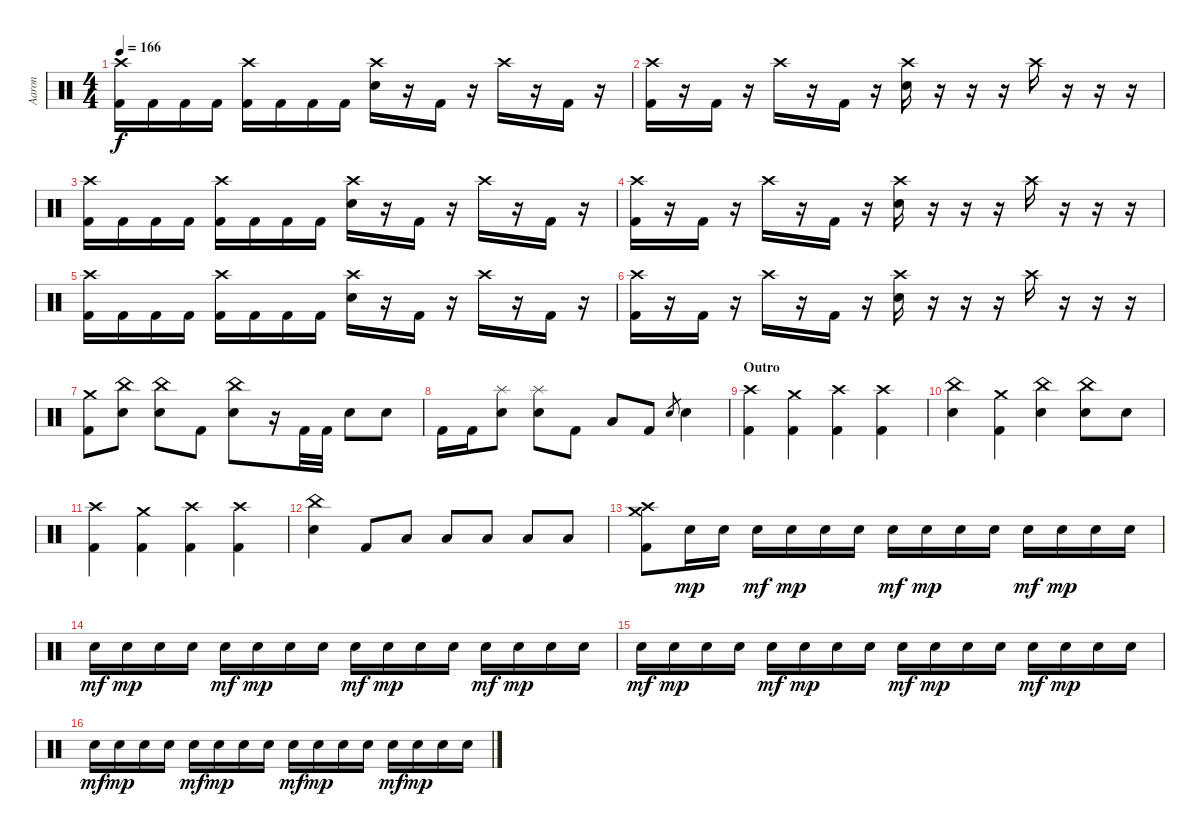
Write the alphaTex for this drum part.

\track ("Aaron" "Aaron") {instrument percussion}
\staff {score}
\articulation defaults
\ts (4 4)
\tempo 166
\clef neutral
\ks c
("Crash high (hit)" "Kick (hit) 2").16{dy f} "Kick (hit) 2".16 "Kick (hit) 2".16 "Kick (hit) 2".16 ("Crash high (hit)" "Kick (hit) 2").16 "Kick (hit) 2".16 "Kick (hit) 2".16 "Kick (hit) 2".16 ("Crash high (hit)" "Snare (hit) 2").16 r.16 "Kick (hit) 2".16 r.16 "Crash high (hit)".16 r.16 "Kick (hit) 2".16 r.16 |
("Crash high (hit)" "Kick (hit) 2").16 r.16 "Kick (hit) 2".16 r.16 "Crash high (hit)".16 r.16 "Kick (hit) 2".16 r.16 ("Crash high (hit)" "Snare (hit) 2").16 r.16 r.16 r.16 "Crash high (hit)".16 r.16 r.16 r.16 |
("Crash high (hit)" "Kick (hit) 2").16 "Kick (hit) 2".16 "Kick (hit) 2".16 "Kick (hit) 2".16 ("Crash high (hit)" "Kick (hit) 2").16 "Kick (hit) 2".16 "Kick (hit) 2".16 "Kick (hit) 2".16 ("Crash high (hit)" "Snare (hit) 2").16 r.16 "Kick (hit) 2".16 r.16 "Crash high (hit)".16 r.16 "Kick (hit) 2".16 r.16 |
("Crash high (hit)" "Kick (hit) 2").16 r.16 "Kick (hit) 2".16 r.16 "Crash high (hit)".16 r.16 "Kick (hit) 2".16 r.16 ("Crash high (hit)" "Snare (hit) 2").16 r.16 r.16 r.16 "Crash high (hit)".16 r.16 r.16 r.16 |
("Crash high (hit)" "Kick (hit) 2").16 "Kick (hit) 2".16 "Kick (hit) 2".16 "Kick (hit) 2".16 ("Crash high (hit)" "Kick (hit) 2").16 "Kick (hit) 2".16 "Kick (hit) 2".16 "Kick (hit) 2".16 ("Crash high (hit)" "Snare (hit) 2").16 r.16 "Kick (hit) 2".16 r.16 "Crash high (hit)".16 r.16 "Kick (hit) 2".16 r.16 |
("Crash high (hit)" "Kick (hit) 2").16 r.16 "Kick (hit) 2".16 r.16 "Crash high (hit)".16 r.16 "Kick (hit) 2".16 r.16 ("Crash high (hit)" "Snare (hit) 2").16 r.16 r.16 r.16 "Crash high (hit)".16 r.16 r.16 r.16 |
("Crash medium (hit)" "Kick (hit) 2").8 ("China (hit)" "Snare (hit) 2").8 ("China (hit)" "Snare (hit) 2").8 "Kick (hit) 2".8 ("China (hit)" "Snare (hit) 2").8 r.16 "Kick (hit) 2".32 "Kick (hit) 2".32 "Snare (hit) 2".8 "Snare (hit) 2".8 |
"Kick (hit) 2".16 "Kick (hit) 2".16 ("Splash (hit)" "Snare (hit) 2").8 ("Splash (hit)" "Snare (hit) 2").8 "Kick (hit) 2".8 "Low Tom (hit)".8 "Kick (hit) 2".8 "Snare (hit) 2".8{gr} "Snare (hit) 2".4 |
\section ("" "Outro")
("Crash high (hit)" "Kick (hit) 2").4 ("Crash medium (hit)" "Kick (hit) 2").4 ("Crash high (hit)" "Kick (hit) 2").4 ("Crash high (hit)" "Kick (hit) 2").4 |
("China (hit)" "Snare (hit) 2").4 ("Crash medium (hit)" "Kick (hit) 2").4 ("China (hit)" "Snare (hit) 2").4 ("China (hit)" "Snare (hit) 2").8 "Snare (hit) 2".8 |
("Crash high (hit)" "Kick (hit) 2").4 ("Crash medium (hit)" "Kick (hit) 2").4 ("Crash high (hit)" "Kick (hit) 2").4 ("Crash high (hit)" "Kick (hit) 2").4 |
("China (hit)" "Snare (hit) 2").4 "Kick (hit) 2".8 "Low Tom (hit)".8 "Low Tom (hit)".8 "Low Tom (hit)".8 "Low Tom (hit)".8 "Low Tom (hit)".8 |
("Crash high (hit)" "Crash medium (hit)" "Kick (hit) 2").8 "Snare (hit) 2".16{dy mp} "Snare (hit) 2".16 "Snare (hit) 2".16{dy mf} "Snare (hit) 2".16{dy mp} "Snare (hit) 2".16 "Snare (hit) 2".16 "Snare (hit) 2".16{dy mf} "Snare (hit) 2".16{dy mp} "Snare (hit) 2".16 "Snare (hit) 2".16 "Snare (hit) 2".16{dy mf} "Snare (hit) 2".16{dy mp} "Snare (hit) 2".16 "Snare (hit) 2".16 |
"Snare (hit) 2".16{dy mf} "Snare (hit) 2".16{dy mp} "Snare (hit) 2".16 "Snare (hit) 2".16 "Snare (hit) 2".16{dy mf} "Snare (hit) 2".16{dy mp} "Snare (hit) 2".16 "Snare (hit) 2".16 "Snare (hit) 2".16{dy mf} "Snare (hit) 2".16{dy mp} "Snare (hit) 2".16 "Snare (hit) 2".16 "Snare (hit) 2".16{dy mf} "Snare (hit) 2".16{dy mp} "Snare (hit) 2".16 "Snare (hit) 2".16 |
"Snare (hit) 2".16{dy mf} "Snare (hit) 2".16{dy mp} "Snare (hit) 2".16 "Snare (hit) 2".16 "Snare (hit) 2".16{dy mf} "Snare (hit) 2".16{dy mp} "Snare (hit) 2".16 "Snare (hit) 2".16 "Snare (hit) 2".16{dy mf} "Snare (hit) 2".16{dy mp} "Snare (hit) 2".16 "Snare (hit) 2".16 "Snare (hit) 2".16{dy mf} "Snare (hit) 2".16{dy mp} "Snare (hit) 2".16 "Snare (hit) 2".16 |
"Snare (hit) 2".16{dy mf} "Snare (hit) 2".16{dy mp} "Snare (hit) 2".16 "Snare (hit) 2".16 "Snare (hit) 2".16{dy mf} "Snare (hit) 2".16{dy mp} "Snare (hit) 2".16 "Snare (hit) 2".16 "Snare (hit) 2".16{dy mf} "Snare (hit) 2".16{dy mp} "Snare (hit) 2".16 "Snare (hit) 2".16 "Snare (hit) 2".16{dy mf} "Snare (hit) 2".16{dy mp} "Snare (hit) 2".16 "Snare (hit) 2".16
